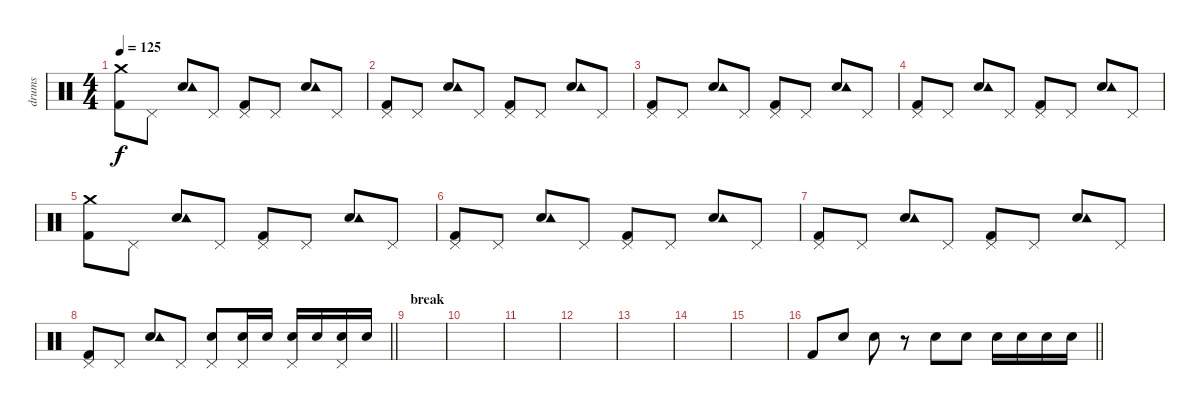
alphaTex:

\track ("drums" "drums") {instrument percussion}
\staff {score}
\articulation defaults
\ts (4 4)
\tempo 125
\clef neutral
\ks c
("Kick (hit) 2" "Crash medium (hit)").8{dy f} "Pedal Hi-Hat (hit)".8 ("Electric Snare (hit)" "Tambourine (hit)").8 "Pedal Hi-Hat (hit)".8 ("Kick (hit) 2" "Pedal Hi-Hat (hit)").8 "Pedal Hi-Hat (hit)".8 ("Electric Snare (hit)" "Tambourine (hit)").8 "Pedal Hi-Hat (hit)".8 |
("Kick (hit) 2" "Pedal Hi-Hat (hit)").8 "Pedal Hi-Hat (hit)".8 ("Electric Snare (hit)" "Tambourine (hit)").8 "Pedal Hi-Hat (hit)".8 ("Kick (hit) 2" "Pedal Hi-Hat (hit)").8 "Pedal Hi-Hat (hit)".8 ("Electric Snare (hit)" "Tambourine (hit)").8 "Pedal Hi-Hat (hit)".8 |
("Kick (hit) 2" "Pedal Hi-Hat (hit)").8 "Pedal Hi-Hat (hit)".8 ("Electric Snare (hit)" "Tambourine (hit)").8 "Pedal Hi-Hat (hit)".8 ("Kick (hit) 2" "Pedal Hi-Hat (hit)").8 "Pedal Hi-Hat (hit)".8 ("Electric Snare (hit)" "Tambourine (hit)").8 "Pedal Hi-Hat (hit)".8 |
("Kick (hit) 2" "Pedal Hi-Hat (hit)").8 "Pedal Hi-Hat (hit)".8 ("Electric Snare (hit)" "Tambourine (hit)").8 "Pedal Hi-Hat (hit)".8 ("Kick (hit) 2" "Pedal Hi-Hat (hit)").8 "Pedal Hi-Hat (hit)".8 ("Electric Snare (hit)" "Tambourine (hit)").8 "Pedal Hi-Hat (hit)".8 |
("Kick (hit) 2" "Crash medium (hit)").8 "Pedal Hi-Hat (hit)".8 ("Electric Snare (hit)" "Tambourine (hit)").8 "Pedal Hi-Hat (hit)".8 ("Kick (hit) 2" "Pedal Hi-Hat (hit)").8 "Pedal Hi-Hat (hit)".8 ("Electric Snare (hit)" "Tambourine (hit)").8 "Pedal Hi-Hat (hit)".8 |
("Kick (hit) 2" "Pedal Hi-Hat (hit)").8 "Pedal Hi-Hat (hit)".8 ("Electric Snare (hit)" "Tambourine (hit)").8 "Pedal Hi-Hat (hit)".8 ("Kick (hit) 2" "Pedal Hi-Hat (hit)").8 "Pedal Hi-Hat (hit)".8 ("Electric Snare (hit)" "Tambourine (hit)").8 "Pedal Hi-Hat (hit)".8 |
("Kick (hit) 2" "Pedal Hi-Hat (hit)").8 "Pedal Hi-Hat (hit)".8 ("Electric Snare (hit)" "Tambourine (hit)").8 "Pedal Hi-Hat (hit)".8 ("Kick (hit) 2" "Pedal Hi-Hat (hit)").8 "Pedal Hi-Hat (hit)".8 ("Electric Snare (hit)" "Tambourine (hit)").8 "Pedal Hi-Hat (hit)".8 |
\barLineRight lightlight
("Kick (hit) 2" "Pedal Hi-Hat (hit)").8 "Pedal Hi-Hat (hit)".8 ("Electric Snare (hit)" "Tambourine (hit)").8 "Pedal Hi-Hat (hit)".8 ("Electric Snare (hit)" "Pedal Hi-Hat (hit)").8 ("Electric Snare (hit)" "Pedal Hi-Hat (hit)").16 "Electric Snare (hit)".16 ("Electric Snare (hit)" "Pedal Hi-Hat (hit)").16 "Electric Snare (hit)".16 ("Electric Snare (hit)" "Pedal Hi-Hat (hit)").16 "Electric Snare (hit)".16 |
\section ("" "break")
|
|
|
|
|
|
|
\barLineRight lightlight "Kick (hit) 2".8 "Electric Snare (hit)".8 "Electric Snare (hit)".8
r.8 "Electric Snare (hit)".8 "Electric Snare (hit)".8 "Electric Snare (hit)".16 "Electric Snare (hit)".16 "Electric Snare (hit)".16 "Electric Snare (hit)".16
